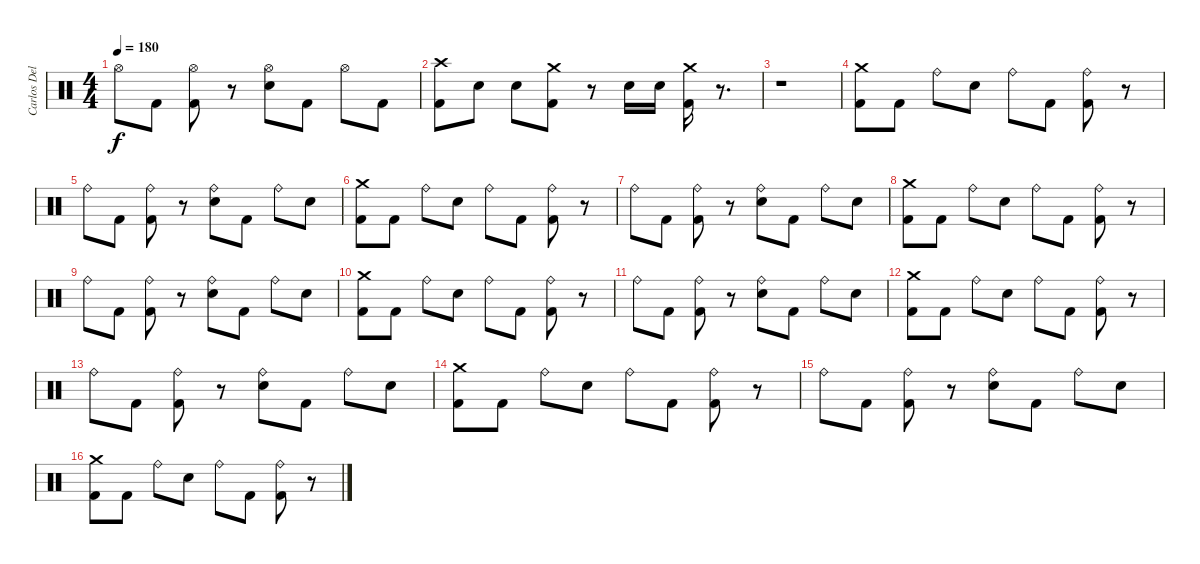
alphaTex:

\track ("Carlos Delgado" "Carlos Del") {instrument percussion}
\staff {score}
\articulation defaults
\ts (4 4)
\tempo 180
\clef neutral
\ks c "Hi-Hat (open)".8{dy f} "Kick (hit) 2".8
("Hi-Hat (open)" "Kick (hit) 2").8 r.8 ("Hi-Hat (open)" "Electric Snare (hit)").8 "Kick (hit) 2".8 "Hi-Hat (open)".8 "Kick (hit) 2".8 |
("Crash high (hit)" "Kick (hit) 2").8 "Electric Snare (hit)".8 "Electric Snare (hit)".8 ("Crash medium (hit)" "Kick (hit) 2").8 r.8 "Electric Snare (hit)".16 "Electric Snare (hit)".16 ("Crash medium (hit)" "Kick (hit) 2").16 r.8{d} |
r.1 |
("Kick (hit) 2" "Crash medium (hit)").8 "Kick (hit) 2".8 "Ride (bell)".8 "Electric Snare (hit)".8 "Ride (bell)".8 "Kick (hit) 2".8 ("Kick (hit) 2" "Ride (bell)").8 r.8 |
"Ride (bell)".8 "Kick (hit) 2".8 ("Ride (bell)" "Kick (hit) 2").8 r.8 ("Ride (bell)" "Electric Snare (hit)").8 "Kick (hit) 2".8 "Ride (bell)".8 "Electric Snare (hit)".8 |
("Kick (hit) 2" "Crash medium (hit)").8 "Kick (hit) 2".8 "Ride (bell)".8 "Electric Snare (hit)".8 "Ride (bell)".8 "Kick (hit) 2".8 ("Kick (hit) 2" "Ride (bell)").8 r.8 |
"Ride (bell)".8 "Kick (hit) 2".8 ("Ride (bell)" "Kick (hit) 2").8 r.8 ("Ride (bell)" "Electric Snare (hit)").8 "Kick (hit) 2".8 "Ride (bell)".8 "Electric Snare (hit)".8 |
("Kick (hit) 2" "Crash medium (hit)").8 "Kick (hit) 2".8 "Ride (bell)".8 "Electric Snare (hit)".8 "Ride (bell)".8 "Kick (hit) 2".8 ("Kick (hit) 2" "Ride (bell)").8 r.8 |
"Ride (bell)".8 "Kick (hit) 2".8 ("Ride (bell)" "Kick (hit) 2").8 r.8 ("Ride (bell)" "Electric Snare (hit)").8 "Kick (hit) 2".8 "Ride (bell)".8 "Electric Snare (hit)".8 |
("Kick (hit) 2" "Crash medium (hit)").8 "Kick (hit) 2".8 "Ride (bell)".8 "Electric Snare (hit)".8 "Ride (bell)".8 "Kick (hit) 2".8 ("Kick (hit) 2" "Ride (bell)").8 r.8 |
"Ride (bell)".8 "Kick (hit) 2".8 ("Ride (bell)" "Kick (hit) 2").8 r.8 ("Ride (bell)" "Electric Snare (hit)").8 "Kick (hit) 2".8 "Ride (bell)".8 "Electric Snare (hit)".8 |
("Kick (hit) 2" "Crash medium (hit)").8 "Kick (hit) 2".8 "Ride (bell)".8 "Electric Snare (hit)".8 "Ride (bell)".8 "Kick (hit) 2".8 ("Kick (hit) 2" "Ride (bell)").8 r.8 |
"Ride (bell)".8 "Kick (hit) 2".8 ("Ride (bell)" "Kick (hit) 2").8 r.8 ("Ride (bell)" "Electric Snare (hit)").8 "Kick (hit) 2".8 "Ride (bell)".8 "Electric Snare (hit)".8 |
("Kick (hit) 2" "Crash medium (hit)").8 "Kick (hit) 2".8 "Ride (bell)".8 "Electric Snare (hit)".8 "Ride (bell)".8 "Kick (hit) 2".8 ("Kick (hit) 2" "Ride (bell)").8 r.8 |
"Ride (bell)".8 "Kick (hit) 2".8 ("Ride (bell)" "Kick (hit) 2").8 r.8 ("Ride (bell)" "Electric Snare (hit)").8 "Kick (hit) 2".8 "Ride (bell)".8 "Electric Snare (hit)".8 |
("Kick (hit) 2" "Crash medium (hit)").8 "Kick (hit) 2".8 "Ride (bell)".8 "Electric Snare (hit)".8 "Ride (bell)".8 "Kick (hit) 2".8 ("Kick (hit) 2" "Ride (bell)").8 r.8
